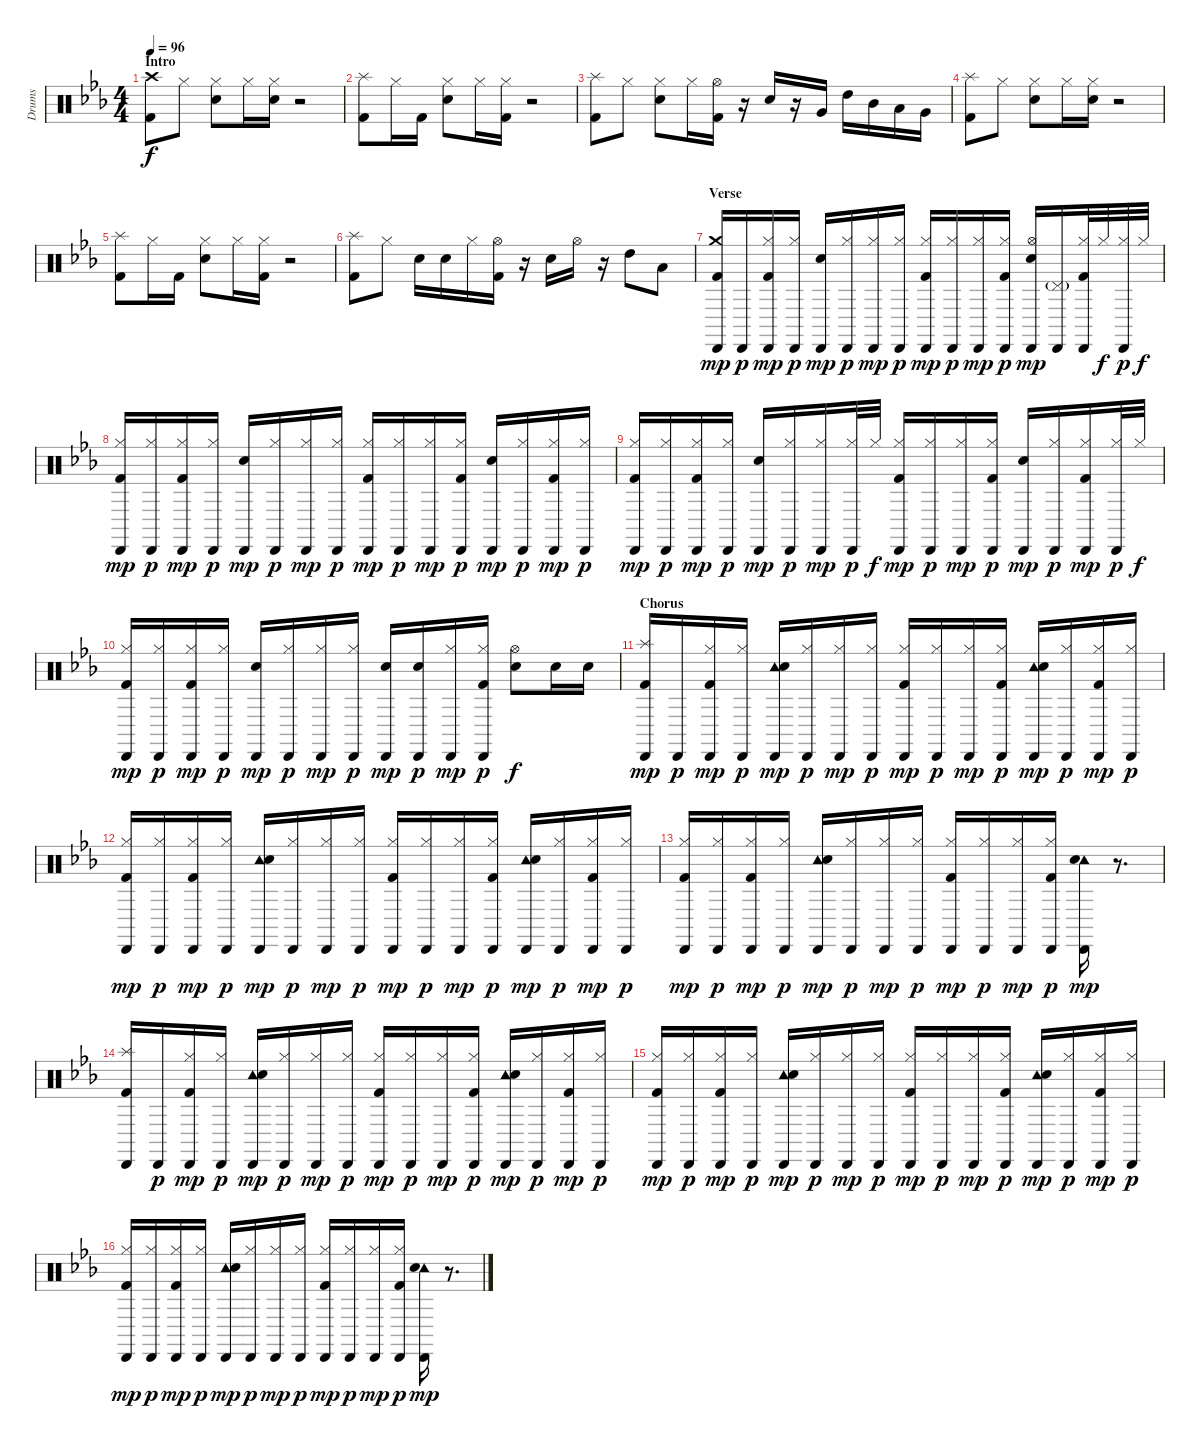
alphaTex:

\track ("Drums" "Drums") {instrument percussion}
\staff {score}
\articulation defaults
\ts (4 4)
\section ("" "Intro")
\tempo 96
\clef neutral
\ks eb
("Kick (hit) 2" "Crash high (hit)").8{dy f} "Hi-Hat (closed)".8 ("Snare (hit) 2" "Hi-Hat (closed)").8 "Hi-Hat (closed)".16 ("Snare (hit) 2" "Hi-Hat (closed)").16 r.2 |
("Kick (hit) 2" "Splash (hit)").8 "Hi-Hat (closed)".16 "Kick (hit) 2".16 ("Snare (hit) 2" "Hi-Hat (closed)").8 "Hi-Hat (closed)".16 ("Kick (hit) 2" "Hi-Hat (closed)").16 r.2 |
("Kick (hit) 2" "Splash (hit)").8 "Hi-Hat (closed)".8 ("Snare (hit) 2" "Hi-Hat (closed)").8 "Hi-Hat (closed)".16 ("Kick (hit) 2" "Hi-Hat (open)").16 r.16 "Snare (hit) 2".16 r.16 "Very Low Tom (hit)".16 "High Tom (hit)".16 "Mid Tom (hit)".16 "Low Tom (hit)".16 "Very Low Tom (hit)".16 |
("Kick (hit) 2" "Splash (hit)").8 "Hi-Hat (closed)".8 ("Snare (hit) 2" "Hi-Hat (closed)").8 "Hi-Hat (closed)".16 ("Snare (hit) 2" "Hi-Hat (closed)").16 r.2 |
("Kick (hit) 2" "Splash (hit)").8 "Hi-Hat (closed)".16 "Kick (hit) 2".16 ("Snare (hit) 2" "Hi-Hat (closed)").8 "Hi-Hat (closed)".16 ("Kick (hit) 2" "Hi-Hat (closed)").16 r.2 |
("Kick (hit) 2" "Splash (hit)").8 "Hi-Hat (closed)".8 "Snare (hit) 2".16 "Snare (hit) 2".16 "Hi-Hat (closed)".16 ("Kick (hit) 2" "Hi-Hat (open)").16 r.16 "Snare (hit) 2".16 "Hi-Hat (open)".16 r.16 "High Tom (hit)".8 "Low Tom (hit)".8 |
\section ("" "Verse")
("Kick (hit) 2" "Crash medium (hit)" "Cabasa (hit)").16{dy mp} "Cabasa (hit)".16{dy p} ("Kick (hit) 2" "Cabasa (hit)" "Hi-Hat (closed)").16{dy mp} ("Cabasa (hit)" "Hi-Hat (closed)").16{dy p} ("Cabasa (hit)" "Snare (hit) 2").16{dy mp} ("Cabasa (hit)" "Hi-Hat (closed)").16{dy p} ("Cabasa (hit)" "Hi-Hat (closed)").16{dy mp} ("Cabasa (hit)" "Hi-Hat (closed)").16{dy p} ("Kick (hit) 2" "Cabasa (hit)" "Hi-Hat (closed)").16{dy mp} ("Cabasa (hit)" "Hi-Hat (closed)").16{dy p} ("Cabasa (hit)" "Hi-Hat (closed)").16{dy mp} ("Kick (hit) 2" "Cabasa (hit)" "Hi-Hat (closed)").16{dy p} ("Cabasa (hit)" "Snare (hit) 2" "Hi-Hat (open)").16{dy mp} ("Cabasa (hit)" "Pedal Hi-Hat (hit)"{g}).16 ("Kick (hit) 2" "Cabasa (hit)" "Hi-Hat (closed)").32 "Hi-Hat (closed)".32{dy f} ("Cabasa (hit)" "Hi-Hat (closed)").32{dy p} "Hi-Hat (closed)".32{dy f} |
("Kick (hit) 2" "Cabasa (hit)" "Hi-Hat (closed)").16{dy mp} ("Cabasa (hit)" "Hi-Hat (closed)").16{dy p} ("Kick (hit) 2" "Cabasa (hit)" "Hi-Hat (closed)").16{dy mp} ("Cabasa (hit)" "Hi-Hat (closed)").16{dy p} ("Cabasa (hit)" "Snare (hit) 2").16{dy mp} ("Cabasa (hit)" "Hi-Hat (closed)").16{dy p} ("Cabasa (hit)" "Hi-Hat (closed)").16{dy mp} ("Cabasa (hit)" "Hi-Hat (closed)").16{dy p} ("Kick (hit) 2" "Cabasa (hit)" "Hi-Hat (closed)").16{dy mp} ("Cabasa (hit)" "Hi-Hat (closed)").16{dy p} ("Cabasa (hit)" "Hi-Hat (closed)").16{dy mp} ("Kick (hit) 2" "Cabasa (hit)" "Hi-Hat (closed)").16{dy p} ("Cabasa (hit)" "Snare (hit) 2").16{dy mp} ("Cabasa (hit)" "Hi-Hat (closed)").16{dy p} ("Kick (hit) 2" "Cabasa (hit)" "Hi-Hat (closed)").16{dy mp} ("Cabasa (hit)" "Hi-Hat (closed)").16{dy p} |
("Kick (hit) 2" "Cabasa (hit)" "Hi-Hat (closed)").16{dy mp} ("Cabasa (hit)" "Hi-Hat (closed)").16{dy p} ("Kick (hit) 2" "Cabasa (hit)" "Hi-Hat (closed)").16{dy mp} ("Cabasa (hit)" "Hi-Hat (closed)").16{dy p} ("Cabasa (hit)" "Snare (hit) 2").16{dy mp} ("Cabasa (hit)" "Hi-Hat (closed)").16{dy p} ("Cabasa (hit)" "Hi-Hat (closed)").16{dy mp} ("Cabasa (hit)" "Hi-Hat (closed)").32{dy p} "Hi-Hat (closed)".32{dy f} ("Kick (hit) 2" "Cabasa (hit)" "Hi-Hat (closed)").16{dy mp} ("Cabasa (hit)" "Hi-Hat (closed)").16{dy p} ("Cabasa (hit)" "Hi-Hat (closed)").16{dy mp} ("Kick (hit) 2" "Cabasa (hit)" "Hi-Hat (closed)").16{dy p} ("Cabasa (hit)" "Snare (hit) 2").16{dy mp} ("Cabasa (hit)" "Hi-Hat (closed)").16{dy p} ("Kick (hit) 2" "Cabasa (hit)" "Hi-Hat (closed)").16{dy mp} ("Cabasa (hit)" "Hi-Hat (closed)").32{dy p} "Hi-Hat (closed)".32{dy f} |
("Kick (hit) 2" "Cabasa (hit)" "Hi-Hat (closed)").16{dy mp} ("Cabasa (hit)" "Hi-Hat (closed)").16{dy p} ("Kick (hit) 2" "Cabasa (hit)" "Hi-Hat (closed)").16{dy mp} ("Cabasa (hit)" "Hi-Hat (closed)").16{dy p} ("Cabasa (hit)" "Snare (hit) 2").16{dy mp} ("Cabasa (hit)" "Hi-Hat (closed)").16{dy p} ("Cabasa (hit)" "Hi-Hat (closed)").16{dy mp} ("Cabasa (hit)" "Hi-Hat (closed)").16{dy p} ("Cabasa (hit)" "Snare (hit) 2").16{dy mp} ("Cabasa (hit)" "Snare (hit) 2").16{dy p} ("Cabasa (hit)" "Hi-Hat (closed)").16{dy mp} ("Kick (hit) 2" "Cabasa (hit)" "Hi-Hat (closed)").16{dy p} ("Snare (hit) 2" "Hi-Hat (open)").8{dy f} "Snare (hit) 2".16 "Snare (hit) 2".16 |
\section ("" "Chorus")
("Kick (hit) 2" "Splash (hit)" "Cabasa (hit)").16{dy mp} "Cabasa (hit)".16{dy p} ("Kick (hit) 2" "Cabasa (hit)" "Hi-Hat (closed)").16{dy mp} ("Cabasa (hit)" "Hi-Hat (closed)").16{dy p} ("Tambourine (hit)" "Cabasa (hit)" "Snare (hit) 2").16{dy mp} ("Cabasa (hit)" "Hi-Hat (closed)").16{dy p} ("Cabasa (hit)" "Hi-Hat (closed)").16{dy mp} ("Cabasa (hit)" "Hi-Hat (closed)").16{dy p} ("Kick (hit) 2" "Cabasa (hit)" "Hi-Hat (closed)").16{dy mp} ("Cabasa (hit)" "Hi-Hat (closed)").16{dy p} ("Cabasa (hit)" "Hi-Hat (closed)").16{dy mp} ("Kick (hit) 2" "Cabasa (hit)" "Hi-Hat (closed)").16{dy p} ("Tambourine (hit)" "Cabasa (hit)" "Snare (hit) 2").16{dy mp} ("Cabasa (hit)" "Hi-Hat (closed)").16{dy p} ("Kick (hit) 2" "Cabasa (hit)" "Hi-Hat (closed)").16{dy mp} ("Cabasa (hit)" "Hi-Hat (closed)").16{dy p} |
("Kick (hit) 2" "Cabasa (hit)" "Hi-Hat (closed)").16{dy mp} ("Cabasa (hit)" "Hi-Hat (closed)").16{dy p} ("Kick (hit) 2" "Cabasa (hit)" "Hi-Hat (closed)").16{dy mp} ("Cabasa (hit)" "Hi-Hat (closed)").16{dy p} ("Tambourine (hit)" "Cabasa (hit)" "Snare (hit) 2").16{dy mp} ("Cabasa (hit)" "Hi-Hat (closed)").16{dy p} ("Cabasa (hit)" "Hi-Hat (closed)").16{dy mp} ("Cabasa (hit)" "Hi-Hat (closed)").16{dy p} ("Kick (hit) 2" "Cabasa (hit)" "Hi-Hat (closed)").16{dy mp} ("Cabasa (hit)" "Hi-Hat (closed)").16{dy p} ("Cabasa (hit)" "Hi-Hat (closed)").16{dy mp} ("Kick (hit) 2" "Cabasa (hit)" "Hi-Hat (closed)").16{dy p} ("Tambourine (hit)" "Cabasa (hit)" "Snare (hit) 2").16{dy mp} ("Cabasa (hit)" "Hi-Hat (closed)").16{dy p} ("Kick (hit) 2" "Cabasa (hit)" "Hi-Hat (closed)").16{dy mp} ("Cabasa (hit)" "Hi-Hat (closed)").16{dy p} |
("Kick (hit) 2" "Cabasa (hit)" "Hi-Hat (closed)").16{dy mp} ("Cabasa (hit)" "Hi-Hat (closed)").16{dy p} ("Kick (hit) 2" "Cabasa (hit)" "Hi-Hat (closed)").16{dy mp} ("Cabasa (hit)" "Hi-Hat (closed)").16{dy p} ("Tambourine (hit)" "Cabasa (hit)" "Snare (hit) 2").16{dy mp} ("Cabasa (hit)" "Hi-Hat (closed)").16{dy p} ("Cabasa (hit)" "Hi-Hat (closed)").16{dy mp} ("Cabasa (hit)" "Hi-Hat (closed)").16{dy p} ("Kick (hit) 2" "Cabasa (hit)" "Hi-Hat (closed)").16{dy mp} ("Cabasa (hit)" "Hi-Hat (closed)").16{dy p} ("Cabasa (hit)" "Hi-Hat (closed)").16{dy mp} ("Kick (hit) 2" "Cabasa (hit)" "Hi-Hat (closed)").16{dy p} ("Tambourine (hit)" "Cabasa (hit)" "Snare (hit) 2").16{dy mp} r.8{d} |
("Kick (hit) 2" "Splash (hit)" "Cabasa (hit)").16 "Cabasa (hit)".16{dy p} ("Kick (hit) 2" "Cabasa (hit)" "Hi-Hat (closed)").16{dy mp} ("Cabasa (hit)" "Hi-Hat (closed)").16{dy p} ("Tambourine (hit)" "Cabasa (hit)" "Snare (hit) 2").16{dy mp} ("Cabasa (hit)" "Hi-Hat (closed)").16{dy p} ("Cabasa (hit)" "Hi-Hat (closed)").16{dy mp} ("Cabasa (hit)" "Hi-Hat (closed)").16{dy p} ("Kick (hit) 2" "Cabasa (hit)" "Hi-Hat (closed)").16{dy mp} ("Cabasa (hit)" "Hi-Hat (closed)").16{dy p} ("Cabasa (hit)" "Hi-Hat (closed)").16{dy mp} ("Kick (hit) 2" "Cabasa (hit)" "Hi-Hat (closed)").16{dy p} ("Tambourine (hit)" "Cabasa (hit)" "Snare (hit) 2").16{dy mp} ("Cabasa (hit)" "Hi-Hat (closed)").16{dy p} ("Kick (hit) 2" "Cabasa (hit)" "Hi-Hat (closed)").16{dy mp} ("Cabasa (hit)" "Hi-Hat (closed)").16{dy p} |
("Kick (hit) 2" "Cabasa (hit)" "Hi-Hat (closed)").16{dy mp} ("Cabasa (hit)" "Hi-Hat (closed)").16{dy p} ("Kick (hit) 2" "Cabasa (hit)" "Hi-Hat (closed)").16{dy mp} ("Cabasa (hit)" "Hi-Hat (closed)").16{dy p} ("Tambourine (hit)" "Cabasa (hit)" "Snare (hit) 2").16{dy mp} ("Cabasa (hit)" "Hi-Hat (closed)").16{dy p} ("Cabasa (hit)" "Hi-Hat (closed)").16{dy mp} ("Cabasa (hit)" "Hi-Hat (closed)").16{dy p} ("Kick (hit) 2" "Cabasa (hit)" "Hi-Hat (closed)").16{dy mp} ("Cabasa (hit)" "Hi-Hat (closed)").16{dy p} ("Cabasa (hit)" "Hi-Hat (closed)").16{dy mp} ("Kick (hit) 2" "Cabasa (hit)" "Hi-Hat (closed)").16{dy p} ("Tambourine (hit)" "Cabasa (hit)" "Snare (hit) 2").16{dy mp} ("Cabasa (hit)" "Hi-Hat (closed)").16{dy p} ("Kick (hit) 2" "Cabasa (hit)" "Hi-Hat (closed)").16{dy mp} ("Cabasa (hit)" "Hi-Hat (closed)").16{dy p} |
("Kick (hit) 2" "Cabasa (hit)" "Hi-Hat (closed)").16{dy mp} ("Cabasa (hit)" "Hi-Hat (closed)").16{dy p} ("Kick (hit) 2" "Cabasa (hit)" "Hi-Hat (closed)").16{dy mp} ("Cabasa (hit)" "Hi-Hat (closed)").16{dy p} ("Tambourine (hit)" "Cabasa (hit)" "Snare (hit) 2").16{dy mp} ("Cabasa (hit)" "Hi-Hat (closed)").16{dy p} ("Cabasa (hit)" "Hi-Hat (closed)").16{dy mp} ("Cabasa (hit)" "Hi-Hat (closed)").16{dy p} ("Kick (hit) 2" "Cabasa (hit)" "Hi-Hat (closed)").16{dy mp} ("Cabasa (hit)" "Hi-Hat (closed)").16{dy p} ("Cabasa (hit)" "Hi-Hat (closed)").16{dy mp} ("Kick (hit) 2" "Cabasa (hit)" "Hi-Hat (closed)").16{dy p} ("Tambourine (hit)" "Cabasa (hit)" "Snare (hit) 2").16{dy mp} r.8{d}
